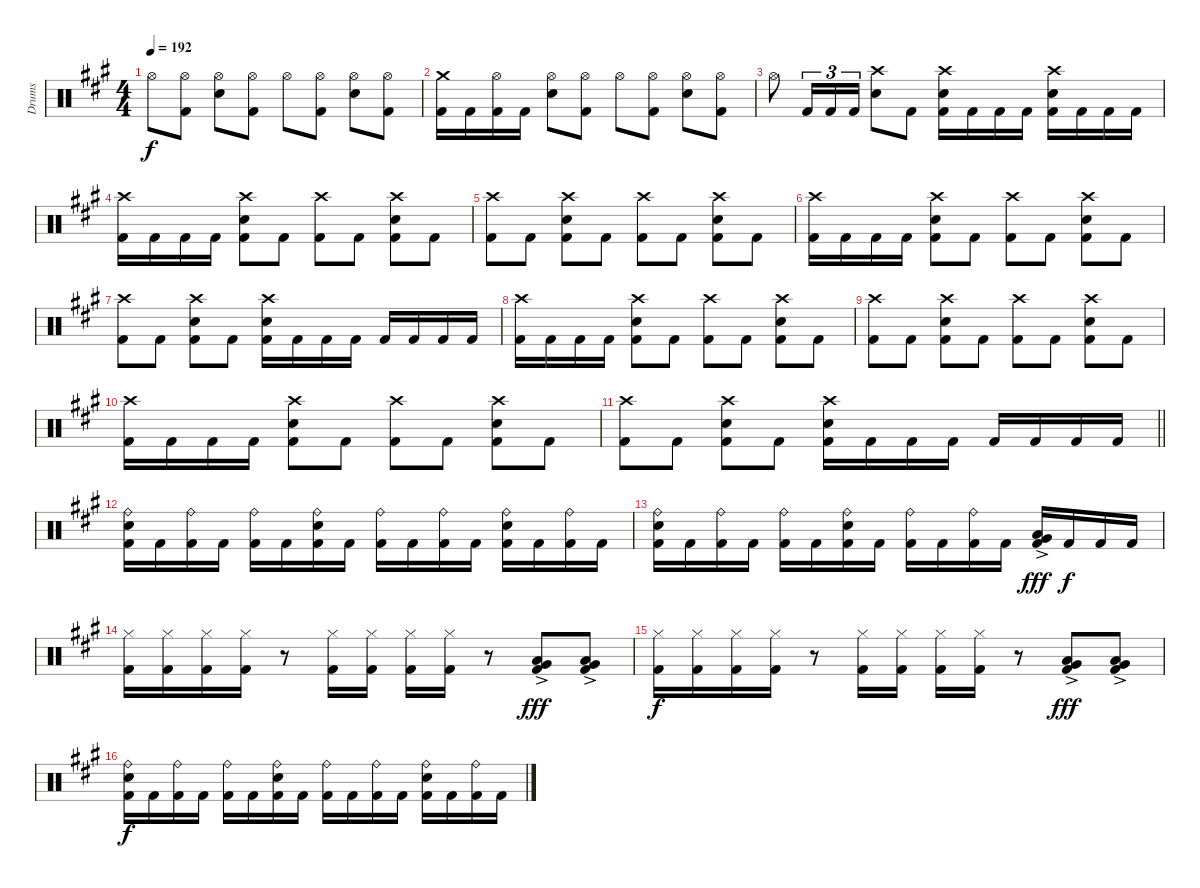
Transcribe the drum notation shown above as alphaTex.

\track ("Drums" "Drums") {instrument percussion}
\staff {score}
\articulation defaults
\ts (4 4)
\tempo 192
\clef neutral
\ks f#minor "Hi-Hat (open)".8{dy f}
("Hi-Hat (open)" "Kick (hit) 2").8 ("Hi-Hat (open)" "Snare (hit) 2").8 ("Hi-Hat (open)" "Kick (hit) 2").8 "Hi-Hat (open)".8 ("Hi-Hat (open)" "Kick (hit) 2").8 ("Hi-Hat (open)" "Snare (hit) 2").8 ("Hi-Hat (open)" "Kick (hit) 2").8 |
("Crash medium (hit)" "Kick (hit) 2").16 "Kick (hit) 2".16 ("Hi-Hat (open)" "Kick (hit) 2").16 "Kick (hit) 2".16 ("Hi-Hat (open)" "Snare (hit) 2").8 ("Hi-Hat (open)" "Kick (hit) 2").8 "Hi-Hat (open)".8 ("Hi-Hat (open)" "Kick (hit) 2").8 ("Hi-Hat (open)" "Snare (hit) 2").8 ("Hi-Hat (open)" "Kick (hit) 2").8 |
"Hi-Hat (open)".8 "Kick (hit) 2".16{tu (3 2)} "Kick (hit) 2".16{tu (3 2)} "Kick (hit) 2".16{tu (3 2)} ("Crash high (hit)" "Snare (hit) 2").8 "Kick (hit) 2".8 ("Crash high (hit)" "Snare (hit) 2" "Kick (hit) 2").16 "Kick (hit) 2".16 "Kick (hit) 2".16 "Kick (hit) 2".16 ("Crash high (hit)" "Snare (hit) 2" "Kick (hit) 2").16 "Kick (hit) 2".16 "Kick (hit) 2".16 "Kick (hit) 2".16 |
("Crash high (hit)" "Kick (hit) 2").16 "Kick (hit) 2".16 "Kick (hit) 2".16 "Kick (hit) 2".16 ("Crash high (hit)" "Snare (hit) 2" "Kick (hit) 2").8 "Kick (hit) 2".8 ("Crash high (hit)" "Kick (hit) 2").8 "Kick (hit) 2".8 ("Crash high (hit)" "Snare (hit) 2" "Kick (hit) 2").8 "Kick (hit) 2".8 |
("Crash high (hit)" "Kick (hit) 2").8 "Kick (hit) 2".8 ("Crash high (hit)" "Snare (hit) 2" "Kick (hit) 2").8 "Kick (hit) 2".8 ("Crash high (hit)" "Kick (hit) 2").8 "Kick (hit) 2".8 ("Crash high (hit)" "Snare (hit) 2" "Kick (hit) 2").8 "Kick (hit) 2".8 |
("Crash high (hit)" "Kick (hit) 2").16 "Kick (hit) 2".16 "Kick (hit) 2".16 "Kick (hit) 2".16 ("Crash high (hit)" "Snare (hit) 2" "Kick (hit) 2").8 "Kick (hit) 2".8 ("Crash high (hit)" "Kick (hit) 2").8 "Kick (hit) 2".8 ("Crash high (hit)" "Snare (hit) 2" "Kick (hit) 2").8 "Kick (hit) 2".8 |
("Crash high (hit)" "Kick (hit) 2").8 "Kick (hit) 2".8 ("Crash high (hit)" "Snare (hit) 2" "Kick (hit) 2").8 "Kick (hit) 2".8 ("Crash high (hit)" "Snare (hit) 2" "Kick (hit) 2").16 "Kick (hit) 2".16 "Kick (hit) 2".16 "Kick (hit) 2".16 "Kick (hit) 2".16 "Kick (hit) 2".16 "Kick (hit) 2".16 "Kick (hit) 2".16 |
("Crash high (hit)" "Kick (hit) 2").16 "Kick (hit) 2".16 "Kick (hit) 2".16 "Kick (hit) 2".16 ("Crash high (hit)" "Snare (hit) 2" "Kick (hit) 2").8 "Kick (hit) 2".8 ("Crash high (hit)" "Kick (hit) 2").8 "Kick (hit) 2".8 ("Crash high (hit)" "Snare (hit) 2" "Kick (hit) 2").8 "Kick (hit) 2".8 |
("Crash high (hit)" "Kick (hit) 2").8 "Kick (hit) 2".8 ("Crash high (hit)" "Snare (hit) 2" "Kick (hit) 2").8 "Kick (hit) 2".8 ("Crash high (hit)" "Kick (hit) 2").8 "Kick (hit) 2".8 ("Crash high (hit)" "Snare (hit) 2" "Kick (hit) 2").8 "Kick (hit) 2".8 |
("Crash high (hit)" "Kick (hit) 2").16 "Kick (hit) 2".16 "Kick (hit) 2".16 "Kick (hit) 2".16 ("Crash high (hit)" "Snare (hit) 2" "Kick (hit) 2").8 "Kick (hit) 2".8 ("Crash high (hit)" "Kick (hit) 2").8 "Kick (hit) 2".8 ("Crash high (hit)" "Snare (hit) 2" "Kick (hit) 2").8 "Kick (hit) 2".8 |
\barLineRight lightlight
("Crash high (hit)" "Kick (hit) 2").8 "Kick (hit) 2".8 ("Crash high (hit)" "Snare (hit) 2" "Kick (hit) 2").8 "Kick (hit) 2".8 ("Crash high (hit)" "Snare (hit) 2" "Kick (hit) 2").16 "Kick (hit) 2".16 "Kick (hit) 2".16 "Kick (hit) 2".16 "Kick (hit) 2".16 "Kick (hit) 2".16 "Kick (hit) 2".16 "Kick (hit) 2".16 |
("Ride (bell)" "Snare (hit) 2" "Kick (hit) 2").16 "Kick (hit) 2".16 ("Ride (bell)" "Kick (hit) 2").16 "Kick (hit) 2".16 ("Ride (bell)" "Kick (hit) 2").16 "Kick (hit) 2".16 ("Ride (bell)" "Snare (hit) 2" "Kick (hit) 2").16 "Kick (hit) 2".16 ("Ride (bell)" "Kick (hit) 2").16 "Kick (hit) 2".16 ("Ride (bell)" "Kick (hit) 2").16 "Kick (hit) 2".16 ("Ride (bell)" "Snare (hit) 2" "Kick (hit) 2").16 "Kick (hit) 2".16 ("Ride (bell)" "Kick (hit) 2").16 "Kick (hit) 2".16 |
("Ride (bell)" "Snare (hit) 2" "Kick (hit) 2").16 "Kick (hit) 2".16 ("Ride (bell)" "Kick (hit) 2").16 "Kick (hit) 2".16 ("Ride (bell)" "Kick (hit) 2").16 "Kick (hit) 2".16 ("Ride (bell)" "Snare (hit) 2" "Kick (hit) 2").16 "Kick (hit) 2".16 ("Ride (bell)" "Kick (hit) 2").16 "Kick (hit) 2".16 ("Ride (bell)" "Kick (hit) 2").16 "Kick (hit) 2".16 ("Low Tom (hit)"{ac} "Very Low Tom (hit)"{ac} "Kick (hit) 2").16{dy fff} "Kick (hit) 2".16{dy f} "Kick (hit) 2".16 "Kick (hit) 2".16 |
("Hi-Hat (closed)" "Kick (hit) 2").16 ("Hi-Hat (closed)" "Kick (hit) 2").16 ("Hi-Hat (closed)" "Kick (hit) 2").16 ("Hi-Hat (closed)" "Kick (hit) 2").16 r.8 ("Hi-Hat (closed)" "Kick (hit) 2").16 ("Hi-Hat (closed)" "Kick (hit) 2").16 ("Hi-Hat (closed)" "Kick (hit) 2").16 ("Hi-Hat (closed)" "Kick (hit) 2").16 r.8 ("Low Tom (hit)"{ac} "Very Low Tom (hit)"{ac} "Kick (hit) 2").8{dy fff} ("Low Tom (hit)"{ac} "Very Low Tom (hit)"{ac} "Kick (hit) 2").8 |
("Hi-Hat (closed)" "Kick (hit) 2").16{dy f} ("Hi-Hat (closed)" "Kick (hit) 2").16 ("Hi-Hat (closed)" "Kick (hit) 2").16 ("Hi-Hat (closed)" "Kick (hit) 2").16 r.8 ("Hi-Hat (closed)" "Kick (hit) 2").16 ("Hi-Hat (closed)" "Kick (hit) 2").16 ("Hi-Hat (closed)" "Kick (hit) 2").16 ("Hi-Hat (closed)" "Kick (hit) 2").16 r.8 ("Low Tom (hit)"{ac} "Very Low Tom (hit)"{ac} "Kick (hit) 2").8{dy fff} ("Low Tom (hit)"{ac} "Very Low Tom (hit)"{ac} "Kick (hit) 2").8 |
("Ride (bell)" "Snare (hit) 2" "Kick (hit) 2").16{dy f} "Kick (hit) 2".16 ("Ride (bell)" "Kick (hit) 2").16 "Kick (hit) 2".16 ("Ride (bell)" "Kick (hit) 2").16 "Kick (hit) 2".16 ("Ride (bell)" "Snare (hit) 2" "Kick (hit) 2").16 "Kick (hit) 2".16 ("Ride (bell)" "Kick (hit) 2").16 "Kick (hit) 2".16 ("Ride (bell)" "Kick (hit) 2").16 "Kick (hit) 2".16 ("Ride (bell)" "Snare (hit) 2" "Kick (hit) 2").16 "Kick (hit) 2".16 ("Ride (bell)" "Kick (hit) 2").16 "Kick (hit) 2".16
